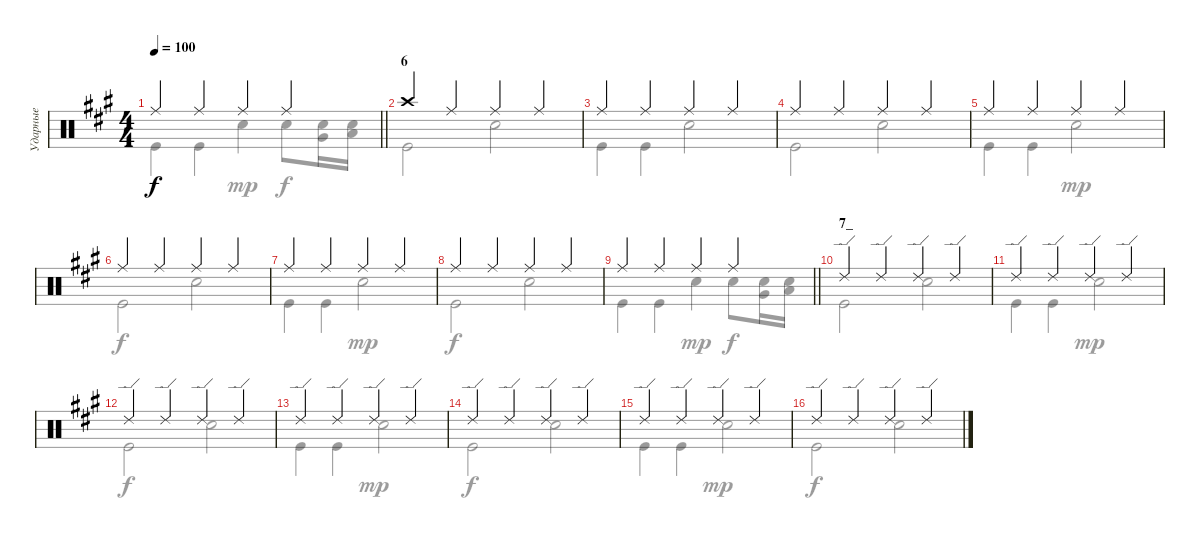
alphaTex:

\track ("Ударные" "Ударные") {instrument percussion}
\staff {score}
\articulation defaults
\voice
\ts (4 4)
\tempo 100
\clef neutral
\barLineRight lightlight
\ks f#minor "Ride (middle)".4{dy f} "Ride (middle)".4 "Ride (middle)".4 "Ride (middle)".4
|
\section ("" "6")
"Crash high (hit)".4 "Ride (middle)".4 "Ride (middle)".4 "Ride (middle)".4 |
"Ride (middle)".4 "Ride (middle)".4 "Ride (middle)".4 "Ride (middle)".4 |
"Ride (middle)".4 "Ride (middle)".4 "Ride (middle)".4 "Ride (middle)".4 |
"Ride (middle)".4 "Ride (middle)".4 "Ride (middle)".4 "Ride (middle)".4 |
"Ride (middle)".4 "Ride (middle)".4 "Ride (middle)".4 "Ride (middle)".4 |
"Ride (middle)".4 "Ride (middle)".4 "Ride (middle)".4 "Ride (middle)".4 |
"Ride (middle)".4 "Ride (middle)".4 "Ride (middle)".4 "Ride (middle)".4 |
\barLineRight lightlight "Ride (middle)".4 "Ride (middle)".4 "Ride (middle)".4 "Ride (middle)".4
|
\section ("" "7_")
"Ride (edge) 2".4 "Ride (edge) 2".4 "Ride (edge) 2".4 "Ride (edge) 2".4 |
"Ride (edge) 2".4 "Ride (edge) 2".4 "Ride (edge) 2".4 "Ride (edge) 2".4 |
"Ride (edge) 2".4 "Ride (edge) 2".4 "Ride (edge) 2".4 "Ride (edge) 2".4 |
"Ride (edge) 2".4 "Ride (edge) 2".4 "Ride (edge) 2".4 "Ride (edge) 2".4 |
"Ride (edge) 2".4 "Ride (edge) 2".4 "Ride (edge) 2".4 "Ride (edge) 2".4 |
"Ride (edge) 2".4 "Ride (edge) 2".4 "Ride (edge) 2".4 "Ride (edge) 2".4 |
"Ride (edge) 2".4 "Ride (edge) 2".4 "Ride (edge) 2".4 "Ride (edge) 2".4
\voice
\clef neutral
\ottava regular
\simile none
\barLineRight lightlight
\ks f#minor "Kick (hit)".4{dy f} "Kick (hit)".4 "Snare (hit) 2".4{dy mp} "Snare (hit) 2".8{dy f}
("Snare (hit) 2" "Very Low Tom (hit)").16 ("Snare (hit) 2" "Low Floor Tom (hit)").16 |
"Kick (hit)".2 "Snare (hit) 2".2 |
"Kick (hit)".4 "Kick (hit)".4 "Snare (hit) 2".2 |
"Kick (hit)".2 "Snare (hit) 2".2 |
"Kick (hit)".4 "Kick (hit)".4 "Snare (hit) 2".2{dy mp} |
"Kick (hit)".2{dy f} "Snare (hit) 2".2 |
"Kick (hit)".4 "Kick (hit)".4 "Snare (hit) 2".2{dy mp} |
"Kick (hit)".2{dy f} "Snare (hit) 2".2 |
\barLineRight lightlight "Kick (hit)".4 "Kick (hit)".4 "Snare (hit) 2".4{dy mp} "Snare (hit) 2".8{dy f}
("Snare (hit) 2" "Very Low Tom (hit)").16 ("Snare (hit) 2" "Low Floor Tom (hit)").16 |
"Kick (hit)".2 "Snare (hit) 2".2 |
"Kick (hit)".4 "Kick (hit)".4 "Snare (hit) 2".2{dy mp} |
"Kick (hit)".2{dy f} "Snare (hit) 2".2 |
"Kick (hit)".4 "Kick (hit)".4 "Snare (hit) 2".2{dy mp} |
"Kick (hit)".2{dy f} "Snare (hit) 2".2 |
"Kick (hit)".4 "Kick (hit)".4 "Snare (hit) 2".2{dy mp} |
"Kick (hit)".2{dy f} "Snare (hit) 2".2
